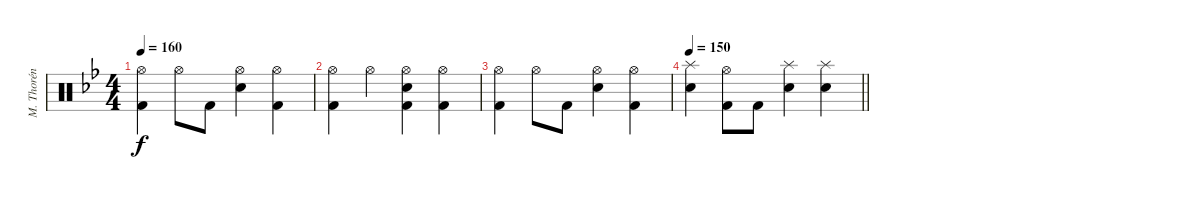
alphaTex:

\track ("M. Thorén (Drums)" "M. Thorén ") {instrument percussion}
\staff {score}
\articulation defaults
\ts (4 4)
\tempo 160
\clef neutral
\ks gminor
("Hi-Hat (open)" "Kick (hit) 2").4{dy f} "Hi-Hat (open)".8 "Kick (hit) 2".8 ("Hi-Hat (open)" "Electric Snare (hit)").4 ("Hi-Hat (open)" "Kick (hit) 2").4 |
("Hi-Hat (open)" "Kick (hit) 2").4 "Hi-Hat (open)".4 ("Hi-Hat (open)" "Electric Snare (hit)" "Kick (hit) 2").4 ("Hi-Hat (open)" "Kick (hit) 2").4 |
("Hi-Hat (open)" "Kick (hit) 2").4 "Hi-Hat (open)".8 "Kick (hit) 2".8 ("Hi-Hat (open)" "Electric Snare (hit)").4 ("Hi-Hat (open)" "Kick (hit) 2").4 |
\tempo 150
\barLineRight lightlight
("Splash (hit)" "Electric Snare (hit)").4 ("Hi-Hat (open)" "Kick (hit) 2").8 "Kick (hit) 2".8 ("Splash (hit)" "Electric Snare (hit)").4 ("Splash (hit)" "Electric Snare (hit)").4
